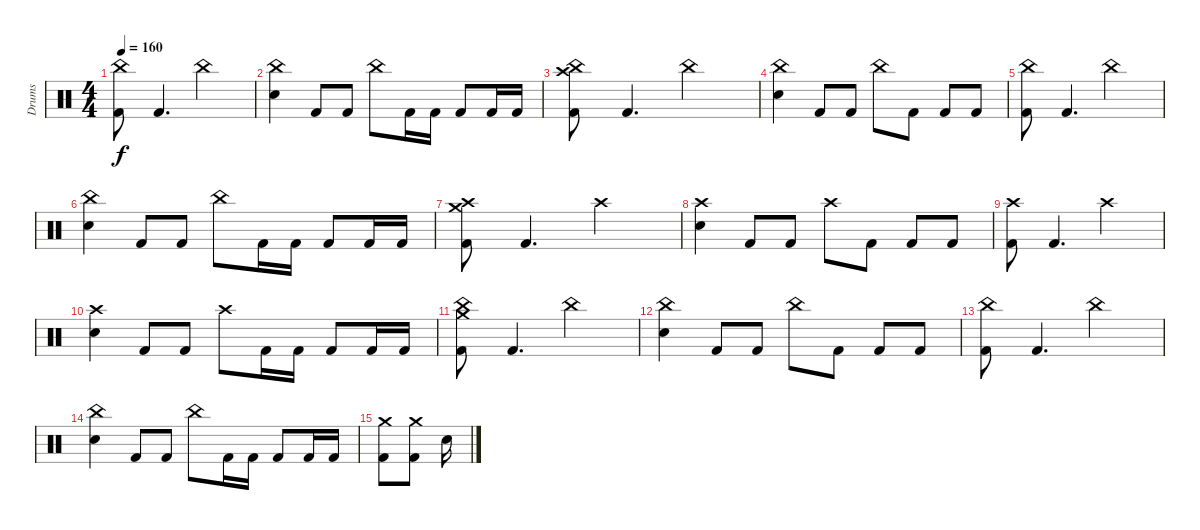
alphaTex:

\track ("Drums" "Drums") {instrument percussion}
\staff {score}
\articulation defaults
\ts (4 4)
\tempo 160
\clef neutral
\ks c
("China (hit)" "Kick (hit) 2").8{dy f} "Kick (hit) 2".4{d} "China (hit)".2 |
("China (hit)" "Electric Snare (hit)").4 "Kick (hit) 2".8 "Kick (hit) 2".8 "China (hit)".8 "Kick (hit) 2".16 "Kick (hit) 2".16 "Kick (hit) 2".8 "Kick (hit) 2".16 "Kick (hit) 2".16 |
("Crash high (hit)" "China (hit)" "Kick (hit) 2").8 "Kick (hit) 2".4{d} "China (hit)".2 |
("China (hit)" "Electric Snare (hit)").4 "Kick (hit) 2".8 "Kick (hit) 2".8 "China (hit)".8 "Kick (hit) 2".8 "Kick (hit) 2".8 "Kick (hit) 2".8 |
("China (hit)" "Kick (hit) 2").8 "Kick (hit) 2".4{d} "China (hit)".2 |
("China (hit)" "Electric Snare (hit)").4 "Kick (hit) 2".8 "Kick (hit) 2".8 "China (hit)".8 "Kick (hit) 2".16 "Kick (hit) 2".16 "Kick (hit) 2".8 "Kick (hit) 2".16 "Kick (hit) 2".16 |
("Crash medium (hit)" "Crash high (hit)" "Kick (hit) 2").8 "Kick (hit) 2".4{d} "Crash high (hit)".2 |
("Crash high (hit)" "Electric Snare (hit)").4 "Kick (hit) 2".8 "Kick (hit) 2".8 "Crash high (hit)".8 "Kick (hit) 2".8 "Kick (hit) 2".8 "Kick (hit) 2".8 |
("Crash high (hit)" "Kick (hit) 2").8 "Kick (hit) 2".4{d} "Crash high (hit)".2 |
("Crash high (hit)" "Electric Snare (hit)").4 "Kick (hit) 2".8 "Kick (hit) 2".8 "Crash high (hit)".8 "Kick (hit) 2".16 "Kick (hit) 2".16 "Kick (hit) 2".8 "Kick (hit) 2".16 "Kick (hit) 2".16 |
("Crash medium (hit)" "China (hit)" "Kick (hit) 2").8 "Kick (hit) 2".4{d} "China (hit)".2 |
("China (hit)" "Electric Snare (hit)").4 "Kick (hit) 2".8 "Kick (hit) 2".8 "China (hit)".8 "Kick (hit) 2".8 "Kick (hit) 2".8 "Kick (hit) 2".8 |
("China (hit)" "Kick (hit) 2").8 "Kick (hit) 2".4{d} "China (hit)".2 |
("China (hit)" "Electric Snare (hit)").4 "Kick (hit) 2".8 "Kick (hit) 2".8 "China (hit)".8 "Kick (hit) 2".16 "Kick (hit) 2".16 "Kick (hit) 2".8 "Kick (hit) 2".16 "Kick (hit) 2".16 |
("Crash medium (hit)" "Kick (hit) 2").8 ("Crash medium (hit)" "Kick (hit) 2").8 "Snare (hit)".16{volume 0}
